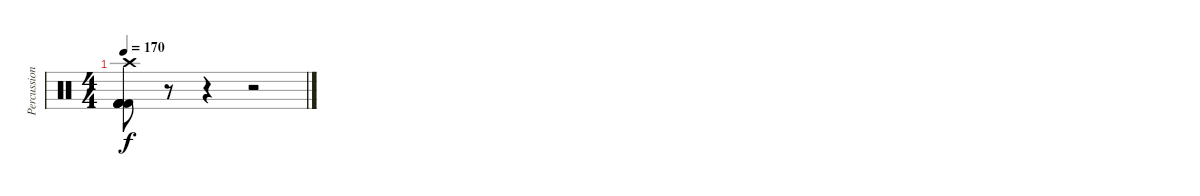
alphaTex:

\track ("Percussion" "Percussion") {instrument percussion}
\staff {score}
\articulation defaults
\ts (4 4)
\tempo 170
\clef neutral
\ks c
("Kick (hit) 2" "Kick (hit) 2" "Kick (hit) 2" "Crash high (hit)" "Kick (hit) 2" "Kick (hit) 2").8{dy f} r.8 r.4 r.2
